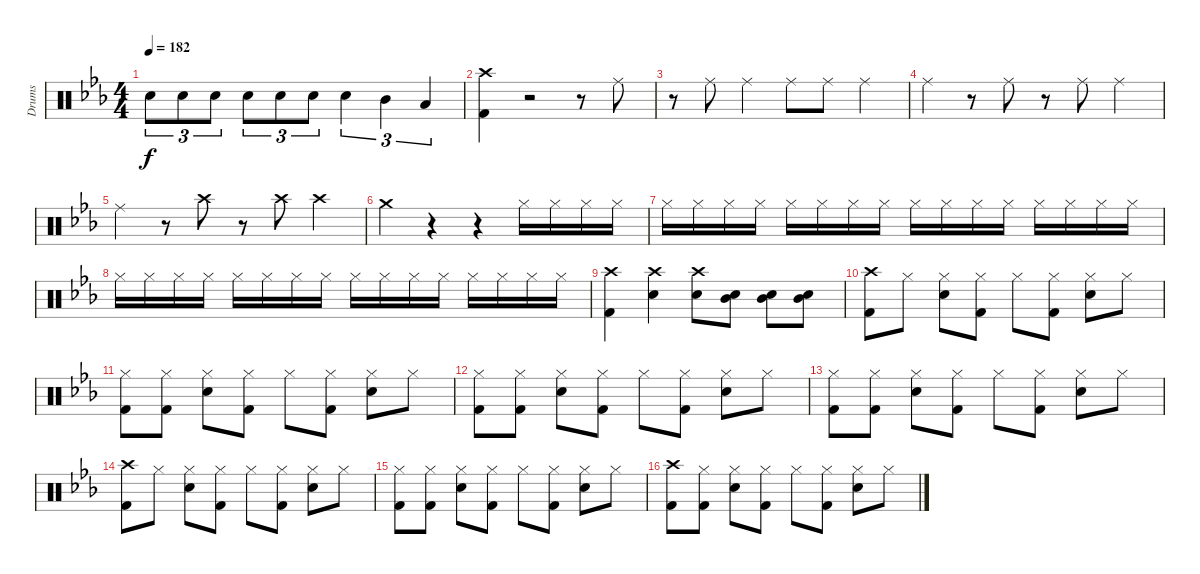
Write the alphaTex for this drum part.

\track ("Drums" "Drums") {instrument percussion}
\staff {score}
\articulation defaults
\ts (4 4)
\tempo 182
\clef neutral
\ks eb "Snare (hit) 2".8{tu (3 2) dy f} "Snare (hit) 2".8{tu (3 2)} "Snare (hit) 2".8{tu (3 2)} "Snare (hit) 2".8{tu (3 2)} "Snare (hit) 2".8{tu (3 2)} "Snare (hit) 2".8{tu (3 2)} "Snare (hit) 2".4{tu (3 2)} "Mid Tom (hit)".4{tu (3 2)} "Low Tom (hit)".4{tu (3 2)}
|
("Crash high (hit)" "Kick (hit) 2").4 r.2 r.8 "Ride (middle)".8 |
r.8 "Ride (middle)".8 "Ride (middle)".4 "Ride (middle)".8 "Ride (middle)".8 "Ride (middle)".4 |
"Ride (middle)".4 r.8 "Ride (middle)".8 r.8 "Ride (middle)".8 "Ride (middle)".4 |
"Ride (middle)".4 r.8 "Crash high (hit)".8 r.8 "Crash high (hit)".8 "Crash high (hit)".4 |
"Crash medium (hit)".4 r.4 r.4 "Hi-Hat (closed)".16 "Hi-Hat (closed)".16 "Hi-Hat (closed)".16 "Hi-Hat (closed)".16 |
"Hi-Hat (closed)".16 "Hi-Hat (closed)".16 "Hi-Hat (closed)".16 "Hi-Hat (closed)".16 "Hi-Hat (closed)".16 "Hi-Hat (closed)".16 "Hi-Hat (closed)".16 "Hi-Hat (closed)".16 "Hi-Hat (closed)".16 "Hi-Hat (closed)".16 "Hi-Hat (closed)".16 "Hi-Hat (closed)".16 "Hi-Hat (closed)".16 "Hi-Hat (closed)".16 "Hi-Hat (closed)".16 "Hi-Hat (closed)".16 |
"Hi-Hat (closed)".16 "Hi-Hat (closed)".16 "Hi-Hat (closed)".16 "Hi-Hat (closed)".16 "Hi-Hat (closed)".16 "Hi-Hat (closed)".16 "Hi-Hat (closed)".16 "Hi-Hat (closed)".16 "Hi-Hat (closed)".16 "Hi-Hat (closed)".16 "Hi-Hat (closed)".16 "Hi-Hat (closed)".16 "Hi-Hat (closed)".16 "Hi-Hat (closed)".16 "Hi-Hat (closed)".16 "Hi-Hat (closed)".16 |
("Crash high (hit)" "Kick (hit) 2").4 ("Crash high (hit)" "Snare (hit) 2").4 ("Crash high (hit)" "Snare (hit) 2").8 ("Mid Tom (hit)" "Snare (hit) 2").8 ("Mid Tom (hit)" "Snare (hit) 2").8 ("Mid Tom (hit)" "Snare (hit) 2").8 |
("Crash high (hit)" "Kick (hit) 2").8 "Hi-Hat (closed)".8 ("Hi-Hat (closed)" "Snare (hit) 2").8 ("Hi-Hat (closed)" "Kick (hit) 2").8 "Hi-Hat (closed)".8 ("Hi-Hat (closed)" "Kick (hit) 2").8 ("Hi-Hat (closed)" "Snare (hit) 2").8 "Hi-Hat (closed)".8 |
("Hi-Hat (closed)" "Kick (hit) 2").8 ("Hi-Hat (closed)" "Kick (hit) 2").8 ("Hi-Hat (closed)" "Snare (hit) 2").8 ("Hi-Hat (closed)" "Kick (hit) 2").8 "Hi-Hat (closed)".8 ("Hi-Hat (closed)" "Kick (hit) 2").8 ("Hi-Hat (closed)" "Snare (hit) 2").8 "Hi-Hat (closed)".8 |
("Hi-Hat (closed)" "Kick (hit) 2").8 ("Hi-Hat (closed)" "Kick (hit) 2").8 ("Hi-Hat (closed)" "Snare (hit) 2").8 ("Hi-Hat (closed)" "Kick (hit) 2").8 "Hi-Hat (closed)".8 ("Hi-Hat (closed)" "Kick (hit) 2").8 ("Hi-Hat (closed)" "Snare (hit) 2").8 "Hi-Hat (closed)".8 |
("Hi-Hat (closed)" "Kick (hit) 2").8 ("Hi-Hat (closed)" "Kick (hit) 2").8 ("Hi-Hat (closed)" "Snare (hit) 2").8 ("Hi-Hat (closed)" "Kick (hit) 2").8 "Hi-Hat (closed)".8 ("Hi-Hat (closed)" "Kick (hit) 2").8 ("Hi-Hat (closed)" "Snare (hit) 2").8 "Hi-Hat (closed)".8 |
("Crash high (hit)" "Kick (hit) 2").8 "Hi-Hat (closed)".8 ("Hi-Hat (closed)" "Snare (hit) 2").8 ("Hi-Hat (closed)" "Kick (hit) 2").8 "Hi-Hat (closed)".8 ("Hi-Hat (closed)" "Kick (hit) 2").8 ("Hi-Hat (closed)" "Snare (hit) 2").8 "Hi-Hat (closed)".8 |
("Hi-Hat (closed)" "Kick (hit) 2").8 ("Hi-Hat (closed)" "Kick (hit) 2").8 ("Hi-Hat (closed)" "Snare (hit) 2").8 ("Hi-Hat (closed)" "Kick (hit) 2").8 "Hi-Hat (closed)".8 ("Hi-Hat (closed)" "Kick (hit) 2").8 ("Hi-Hat (closed)" "Snare (hit) 2").8 "Hi-Hat (closed)".8 |
("Crash high (hit)" "Kick (hit) 2").8 ("Hi-Hat (closed)" "Kick (hit) 2").8 ("Hi-Hat (closed)" "Snare (hit) 2").8 ("Hi-Hat (closed)" "Kick (hit) 2").8 "Hi-Hat (closed)".8 ("Hi-Hat (closed)" "Kick (hit) 2").8 ("Hi-Hat (closed)" "Snare (hit) 2").8 "Hi-Hat (closed)".8
